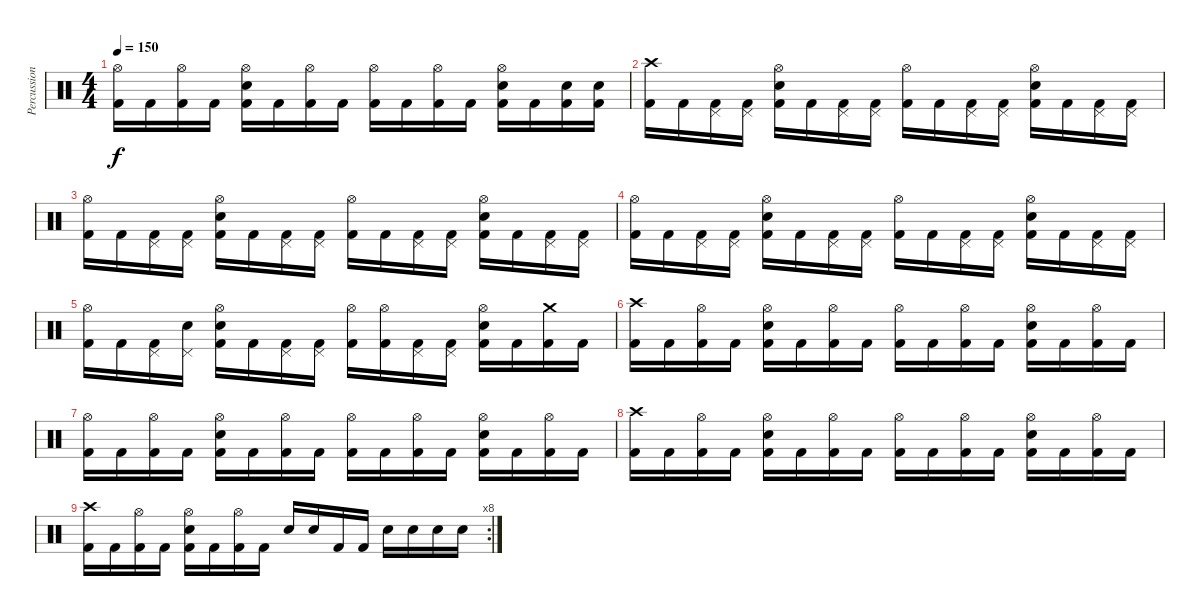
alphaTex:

\track ("Percussion" "Percussion") {instrument percussion}
\staff {score}
\articulation defaults
\ts (4 4)
\tempo 150
\clef neutral
\ks c
("Hi-Hat (open)" "Kick (hit) 2").16{dy f} "Kick (hit) 2".16 ("Hi-Hat (open)" "Kick (hit) 2").16 "Kick (hit) 2".16 ("Hi-Hat (open)" "Snare (hit) 2" "Kick (hit) 2").16 "Kick (hit) 2".16 ("Hi-Hat (open)" "Kick (hit) 2").16 "Kick (hit) 2".16 ("Hi-Hat (open)" "Kick (hit) 2").16 "Kick (hit) 2".16 ("Hi-Hat (open)" "Kick (hit) 2").16 "Kick (hit) 2".16 ("Hi-Hat (open)" "Snare (hit) 2" "Kick (hit) 2").16 "Kick (hit) 2".16 ("Snare (hit) 2" "Kick (hit) 2").16 ("Snare (hit) 2" "Kick (hit) 2").16 |
("Crash high (hit)" "Kick (hit) 2").16 "Kick (hit) 2".16 ("Pedal Hi-Hat (hit)" "Kick (hit) 2").16 ("Pedal Hi-Hat (hit)" "Kick (hit) 2").16 ("Hi-Hat (open)" "Snare (hit) 2" "Kick (hit) 2").16 "Kick (hit) 2".16 ("Pedal Hi-Hat (hit)" "Kick (hit) 2").16 ("Pedal Hi-Hat (hit)" "Kick (hit) 2").16 ("Hi-Hat (open)" "Kick (hit) 2").16 "Kick (hit) 2".16 ("Pedal Hi-Hat (hit)" "Kick (hit) 2").16 ("Pedal Hi-Hat (hit)" "Kick (hit) 2").16 ("Hi-Hat (open)" "Snare (hit) 2" "Kick (hit) 2").16 "Kick (hit) 2".16 ("Pedal Hi-Hat (hit)" "Kick (hit) 2").16 ("Pedal Hi-Hat (hit)" "Kick (hit) 2").16 |
("Hi-Hat (open)" "Kick (hit) 2").16 "Kick (hit) 2".16 ("Pedal Hi-Hat (hit)" "Kick (hit) 2").16 ("Pedal Hi-Hat (hit)" "Kick (hit) 2").16 ("Hi-Hat (open)" "Snare (hit) 2" "Kick (hit) 2").16 "Kick (hit) 2".16 ("Pedal Hi-Hat (hit)" "Kick (hit) 2").16 ("Pedal Hi-Hat (hit)" "Kick (hit) 2").16 ("Hi-Hat (open)" "Kick (hit) 2").16 "Kick (hit) 2".16 ("Pedal Hi-Hat (hit)" "Kick (hit) 2").16 ("Pedal Hi-Hat (hit)" "Kick (hit) 2").16 ("Hi-Hat (open)" "Snare (hit) 2" "Kick (hit) 2").16 "Kick (hit) 2".16 ("Pedal Hi-Hat (hit)" "Kick (hit) 2").16 ("Pedal Hi-Hat (hit)" "Kick (hit) 2").16 |
("Hi-Hat (open)" "Kick (hit) 2").16 "Kick (hit) 2".16 ("Pedal Hi-Hat (hit)" "Kick (hit) 2").16 ("Pedal Hi-Hat (hit)" "Kick (hit) 2").16 ("Hi-Hat (open)" "Snare (hit) 2" "Kick (hit) 2").16 "Kick (hit) 2".16 ("Pedal Hi-Hat (hit)" "Kick (hit) 2").16 ("Pedal Hi-Hat (hit)" "Kick (hit) 2").16 ("Hi-Hat (open)" "Kick (hit) 2").16 "Kick (hit) 2".16 ("Pedal Hi-Hat (hit)" "Kick (hit) 2").16 ("Pedal Hi-Hat (hit)" "Kick (hit) 2").16 ("Hi-Hat (open)" "Snare (hit) 2" "Kick (hit) 2").16 "Kick (hit) 2".16 ("Pedal Hi-Hat (hit)" "Kick (hit) 2").16 ("Pedal Hi-Hat (hit)" "Kick (hit) 2").16 |
("Hi-Hat (open)" "Kick (hit) 2").16 "Kick (hit) 2".16 ("Pedal Hi-Hat (hit)" "Kick (hit) 2").16 ("Pedal Hi-Hat (hit)" "Snare (hit)").16 ("Hi-Hat (open)" "Snare (hit) 2" "Kick (hit) 2").16 "Kick (hit) 2".16 ("Pedal Hi-Hat (hit)" "Kick (hit) 2").16 ("Pedal Hi-Hat (hit)" "Kick (hit) 2").16 ("Hi-Hat (open)" "Kick (hit) 2").16 ("Hi-Hat (open)" "Kick (hit) 2").16 ("Pedal Hi-Hat (hit)" "Kick (hit) 2").16 ("Pedal Hi-Hat (hit)" "Kick (hit) 2").16 ("Hi-Hat (open)" "Snare (hit) 2" "Kick (hit) 2").16 "Kick (hit) 2".16 ("Crash medium (hit)" "Kick (hit) 2").16 "Kick (hit) 2".16 |
("Crash high (hit)" "Kick (hit) 2").16 "Kick (hit) 2".16 ("Hi-Hat (open)" "Kick (hit) 2").16 "Kick (hit) 2".16 ("Hi-Hat (open)" "Snare (hit) 2" "Kick (hit) 2").16 "Kick (hit) 2".16 ("Hi-Hat (open)" "Kick (hit) 2").16 "Kick (hit) 2".16 ("Hi-Hat (open)" "Kick (hit) 2").16 "Kick (hit) 2".16 ("Hi-Hat (open)" "Kick (hit) 2").16 "Kick (hit) 2".16 ("Hi-Hat (open)" "Snare (hit) 2" "Kick (hit) 2").16 "Kick (hit) 2".16 ("Hi-Hat (open)" "Kick (hit) 2").16 "Kick (hit) 2".16 |
("Hi-Hat (open)" "Kick (hit) 2").16 "Kick (hit) 2".16 ("Hi-Hat (open)" "Kick (hit) 2").16 "Kick (hit) 2".16 ("Hi-Hat (open)" "Snare (hit) 2" "Kick (hit) 2").16 "Kick (hit) 2".16 ("Hi-Hat (open)" "Kick (hit) 2").16 "Kick (hit) 2".16 ("Hi-Hat (open)" "Kick (hit) 2").16 "Kick (hit) 2".16 ("Hi-Hat (open)" "Kick (hit) 2").16 "Kick (hit) 2".16 ("Hi-Hat (open)" "Snare (hit) 2" "Kick (hit) 2").16 "Kick (hit) 2".16 ("Hi-Hat (open)" "Kick (hit) 2").16 "Kick (hit) 2".16 |
("Crash high (hit)" "Kick (hit) 2").16 "Kick (hit) 2".16 ("Hi-Hat (open)" "Kick (hit) 2").16 "Kick (hit) 2".16 ("Hi-Hat (open)" "Snare (hit) 2" "Kick (hit) 2").16 "Kick (hit) 2".16 ("Hi-Hat (open)" "Kick (hit) 2").16 "Kick (hit) 2".16 ("Hi-Hat (open)" "Kick (hit) 2").16 "Kick (hit) 2".16 ("Hi-Hat (open)" "Kick (hit) 2").16 "Kick (hit) 2".16 ("Hi-Hat (open)" "Snare (hit) 2" "Kick (hit) 2").16 "Kick (hit) 2".16 ("Hi-Hat (open)" "Kick (hit) 2").16 "Kick (hit) 2".16 |
\rc 8
("Crash high (hit)" "Kick (hit) 2").16 "Kick (hit) 2".16 ("Hi-Hat (open)" "Kick (hit) 2").16 "Kick (hit) 2".16 ("Hi-Hat (open)" "Snare (hit) 2" "Kick (hit) 2").16 "Kick (hit) 2".16 ("Hi-Hat (open)" "Kick (hit) 2").16 "Kick (hit) 2".16 "Snare (hit) 2".16 "Snare (hit) 2".16 "Kick (hit) 2".16 "Kick (hit) 2".16 "Snare (hit) 2".16 "Snare (hit) 2".16 "Snare (hit) 2".16 "Snare (hit) 2".16
